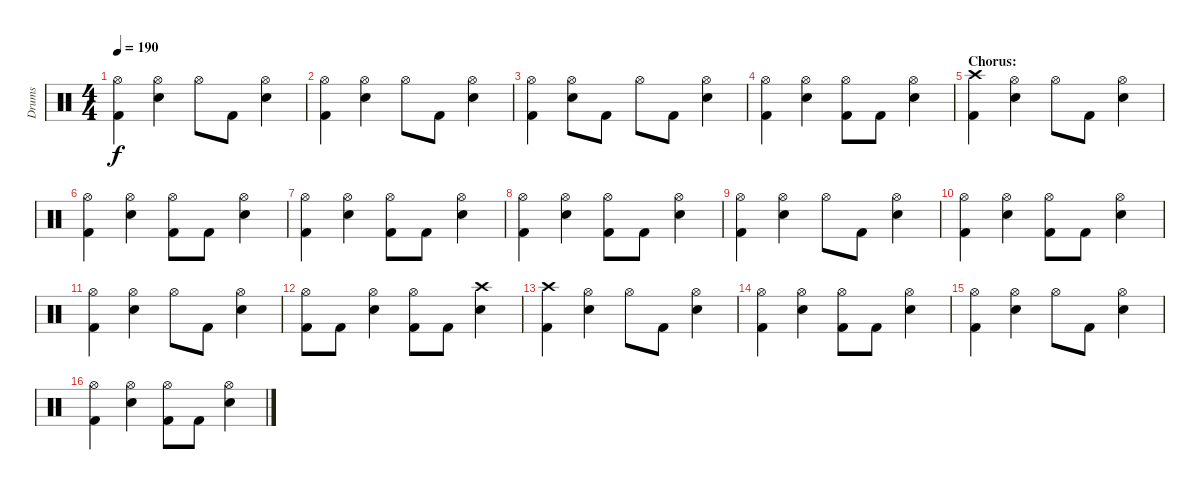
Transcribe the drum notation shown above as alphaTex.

\track ("Drums" "Drums") {instrument percussion}
\staff {score}
\articulation defaults
\ts (4 4)
\tempo 190
\clef neutral
\ks c
("Hi-Hat (open)" "Kick (hit) 2").4{dy f} ("Hi-Hat (open)" "Electric Snare (hit)").4 "Hi-Hat (open)".8 "Kick (hit) 2".8 ("Hi-Hat (open)" "Electric Snare (hit)").4 |
("Hi-Hat (open)" "Kick (hit) 2").4 ("Hi-Hat (open)" "Electric Snare (hit)").4 "Hi-Hat (open)".8 "Kick (hit) 2".8 ("Hi-Hat (open)" "Electric Snare (hit)").4 |
("Hi-Hat (open)" "Kick (hit) 2").4 ("Hi-Hat (open)" "Electric Snare (hit)").8 "Kick (hit) 2".8 "Hi-Hat (open)".8 "Kick (hit) 2".8 ("Hi-Hat (open)" "Electric Snare (hit)").4 |
("Hi-Hat (open)" "Kick (hit) 2").4 ("Hi-Hat (open)" "Electric Snare (hit)").4 ("Hi-Hat (open)" "Kick (hit) 2").8 "Kick (hit) 2".8 ("Hi-Hat (open)" "Electric Snare (hit)").4 |
\section ("" "Chorus:")
("Crash high (hit)" "Kick (hit) 2").4 ("Hi-Hat (open)" "Electric Snare (hit)").4 "Hi-Hat (open)".8 "Kick (hit) 2".8 ("Hi-Hat (open)" "Electric Snare (hit)").4 |
("Hi-Hat (open)" "Kick (hit) 2").4 ("Hi-Hat (open)" "Electric Snare (hit)").4 ("Hi-Hat (open)" "Kick (hit) 2").8 "Kick (hit) 2".8 ("Hi-Hat (open)" "Electric Snare (hit)").4 |
("Hi-Hat (open)" "Kick (hit) 2").4 ("Hi-Hat (open)" "Electric Snare (hit)").4 ("Hi-Hat (open)" "Kick (hit) 2").8 "Kick (hit) 2".8 ("Hi-Hat (open)" "Electric Snare (hit)").4 |
("Hi-Hat (open)" "Kick (hit) 2").4 ("Hi-Hat (open)" "Electric Snare (hit)").4 ("Hi-Hat (open)" "Kick (hit) 2").8 "Kick (hit) 2".8 ("Hi-Hat (open)" "Electric Snare (hit)").4 |
("Hi-Hat (open)" "Kick (hit) 2").4 ("Hi-Hat (open)" "Electric Snare (hit)").4 "Hi-Hat (open)".8 "Kick (hit) 2".8 ("Hi-Hat (open)" "Electric Snare (hit)").4 |
("Hi-Hat (open)" "Kick (hit) 2").4 ("Hi-Hat (open)" "Electric Snare (hit)").4 ("Hi-Hat (open)" "Kick (hit) 2").8 "Kick (hit) 2".8 ("Hi-Hat (open)" "Electric Snare (hit)").4 |
("Hi-Hat (open)" "Kick (hit) 2").4 ("Hi-Hat (open)" "Electric Snare (hit)").4 "Hi-Hat (open)".8 "Kick (hit) 2".8 ("Hi-Hat (open)" "Electric Snare (hit)").4 |
("Hi-Hat (open)" "Kick (hit) 2").8 "Kick (hit) 2".8 ("Hi-Hat (open)" "Electric Snare (hit)").4 ("Hi-Hat (open)" "Kick (hit) 2").8 "Kick (hit) 2".8 ("Crash high (hit)" "Electric Snare (hit)").4 |
("Crash high (hit)" "Kick (hit) 2").4 ("Hi-Hat (open)" "Electric Snare (hit)").4 "Hi-Hat (open)".8 "Kick (hit) 2".8 ("Hi-Hat (open)" "Electric Snare (hit)").4 |
("Hi-Hat (open)" "Kick (hit) 2").4 ("Hi-Hat (open)" "Electric Snare (hit)").4 ("Hi-Hat (open)" "Kick (hit) 2").8 "Kick (hit) 2".8 ("Hi-Hat (open)" "Electric Snare (hit)").4 |
("Hi-Hat (open)" "Kick (hit) 2").4 ("Hi-Hat (open)" "Electric Snare (hit)").4 "Hi-Hat (open)".8 "Kick (hit) 2".8 ("Hi-Hat (open)" "Electric Snare (hit)").4 |
("Hi-Hat (open)" "Kick (hit) 2").4 ("Hi-Hat (open)" "Electric Snare (hit)").4 ("Hi-Hat (open)" "Kick (hit) 2").8 "Kick (hit) 2".8 ("Hi-Hat (open)" "Electric Snare (hit)").4
